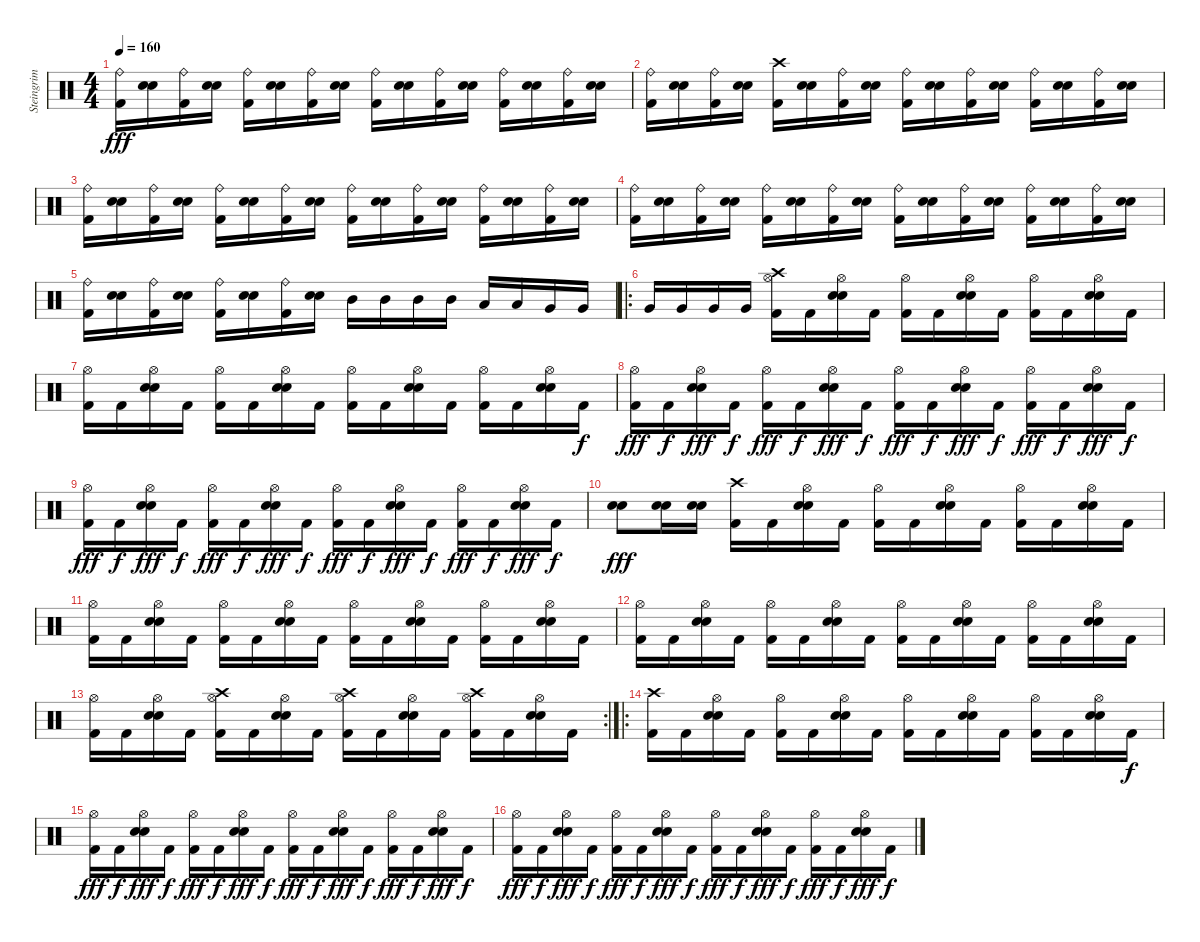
\track ("Steingrim" "Steingrim") {instrument percussion}
\staff {score}
\articulation defaults
\ts (4 4)
\tempo 160
\clef neutral
\ks c
("Kick (hit) 2" "Ride (bell)").16{dy fff} ("Snare (hit) 2" "Electric Snare (hit)").16 ("Kick (hit) 2" "Ride (bell)").16 ("Snare (hit) 2" "Electric Snare (hit)").16 ("Kick (hit) 2" "Ride (bell)").16 ("Snare (hit) 2" "Electric Snare (hit)").16 ("Kick (hit) 2" "Ride (bell)").16 ("Snare (hit) 2" "Electric Snare (hit)").16 ("Kick (hit) 2" "Ride (bell)").16 ("Snare (hit) 2" "Electric Snare (hit)").16 ("Kick (hit) 2" "Ride (bell)").16 ("Snare (hit) 2" "Electric Snare (hit)").16 ("Kick (hit) 2" "Ride (bell)").16 ("Snare (hit) 2" "Electric Snare (hit)").16 ("Kick (hit) 2" "Ride (bell)").16 ("Snare (hit) 2" "Electric Snare (hit)").16 |
("Kick (hit) 2" "Ride (bell)").16 ("Snare (hit) 2" "Electric Snare (hit)").16 ("Kick (hit) 2" "Ride (bell)").16 ("Snare (hit) 2" "Electric Snare (hit)").16 ("Kick (hit) 2" "Crash high (hit)").16 ("Snare (hit) 2" "Electric Snare (hit)").16 ("Kick (hit) 2" "Ride (bell)").16 ("Snare (hit) 2" "Electric Snare (hit)").16 ("Kick (hit) 2" "Ride (bell)").16 ("Snare (hit) 2" "Electric Snare (hit)").16 ("Kick (hit) 2" "Ride (bell)").16 ("Snare (hit) 2" "Electric Snare (hit)").16 ("Kick (hit) 2" "Ride (bell)").16 ("Snare (hit) 2" "Electric Snare (hit)").16 ("Kick (hit) 2" "Ride (bell)").16 ("Snare (hit) 2" "Electric Snare (hit)").16 |
("Kick (hit) 2" "Ride (bell)").16 ("Snare (hit) 2" "Electric Snare (hit)").16 ("Kick (hit) 2" "Ride (bell)").16 ("Snare (hit) 2" "Electric Snare (hit)").16 ("Kick (hit) 2" "Ride (bell)").16 ("Snare (hit) 2" "Electric Snare (hit)").16 ("Kick (hit) 2" "Ride (bell)").16 ("Snare (hit) 2" "Electric Snare (hit)").16 ("Kick (hit) 2" "Ride (bell)").16 ("Snare (hit) 2" "Electric Snare (hit)").16 ("Kick (hit) 2" "Ride (bell)").16 ("Snare (hit) 2" "Electric Snare (hit)").16 ("Kick (hit) 2" "Ride (bell)").16 ("Snare (hit) 2" "Electric Snare (hit)").16 ("Kick (hit) 2" "Ride (bell)").16 ("Snare (hit) 2" "Electric Snare (hit)").16 |
("Kick (hit) 2" "Ride (bell)").16 ("Snare (hit) 2" "Electric Snare (hit)").16 ("Kick (hit) 2" "Ride (bell)").16 ("Snare (hit) 2" "Electric Snare (hit)").16 ("Kick (hit) 2" "Ride (bell)").16 ("Snare (hit) 2" "Electric Snare (hit)").16 ("Kick (hit) 2" "Ride (bell)").16 ("Snare (hit) 2" "Electric Snare (hit)").16 ("Kick (hit) 2" "Ride (bell)").16 ("Snare (hit) 2" "Electric Snare (hit)").16 ("Kick (hit) 2" "Ride (bell)").16 ("Snare (hit) 2" "Electric Snare (hit)").16 ("Kick (hit) 2" "Ride (bell)").16 ("Snare (hit) 2" "Electric Snare (hit)").16 ("Kick (hit) 2" "Ride (bell)").16 ("Snare (hit) 2" "Electric Snare (hit)").16 |
("Kick (hit) 2" "Ride (bell)").16 ("Snare (hit) 2" "Electric Snare (hit)").16 ("Kick (hit) 2" "Ride (bell)").16 ("Snare (hit) 2" "Electric Snare (hit)").16 ("Kick (hit) 2" "Ride (bell)").16 ("Snare (hit) 2" "Electric Snare (hit)").16 ("Kick (hit) 2" "Ride (bell)").16 ("Snare (hit) 2" "Electric Snare (hit)").16 "Mid Tom (hit)".16 "Mid Tom (hit)".16 "Mid Tom (hit)".16 "Mid Tom (hit)".16 "Low Tom (hit)".16 "Low Tom (hit)".16 "Very Low Tom (hit)".16 "Very Low Tom (hit)".16 |
\ro "Very Low Tom (hit)".16 "Very Low Tom (hit)".16 "Very Low Tom (hit)".16 "Very Low Tom (hit)".16
("Crash high (hit)" "Kick (hit) 2" "Hi-Hat (open)").16 "Kick (hit) 2".16 ("Snare (hit) 2" "Electric Snare (hit)" "Hi-Hat (open)").16 "Kick (hit) 2".16 ("Kick (hit) 2" "Hi-Hat (open)").16 "Kick (hit) 2".16 ("Snare (hit) 2" "Electric Snare (hit)" "Hi-Hat (open)").16 "Kick (hit) 2".16 ("Kick (hit) 2" "Hi-Hat (open)").16 "Kick (hit) 2".16 ("Snare (hit) 2" "Electric Snare (hit)" "Hi-Hat (open)").16 "Kick (hit) 2".16 |
("Kick (hit) 2" "Hi-Hat (open)").16 "Kick (hit) 2".16 ("Snare (hit) 2" "Electric Snare (hit)" "Hi-Hat (open)").16 "Kick (hit) 2".16 ("Kick (hit) 2" "Hi-Hat (open)").16 "Kick (hit) 2".16 ("Snare (hit) 2" "Electric Snare (hit)" "Hi-Hat (open)").16 "Kick (hit) 2".16 ("Kick (hit) 2" "Hi-Hat (open)").16 "Kick (hit) 2".16 ("Snare (hit) 2" "Electric Snare (hit)" "Hi-Hat (open)").16 "Kick (hit) 2".16 ("Kick (hit) 2" "Hi-Hat (open)").16 "Kick (hit) 2".16 ("Snare (hit) 2" "Electric Snare (hit)" "Hi-Hat (open)").16 "Kick (hit) 2".16{dy f} |
("Kick (hit) 2" "Hi-Hat (open)").16{dy fff} "Kick (hit) 2".16{dy f} ("Snare (hit) 2" "Electric Snare (hit)" "Hi-Hat (open)").16{dy fff} "Kick (hit) 2".16{dy f} ("Kick (hit) 2" "Hi-Hat (open)").16{dy fff} "Kick (hit) 2".16{dy f} ("Snare (hit) 2" "Electric Snare (hit)" "Hi-Hat (open)").16{dy fff} "Kick (hit) 2".16{dy f} ("Kick (hit) 2" "Hi-Hat (open)").16{dy fff} "Kick (hit) 2".16{dy f} ("Snare (hit) 2" "Electric Snare (hit)" "Hi-Hat (open)").16{dy fff} "Kick (hit) 2".16{dy f} ("Kick (hit) 2" "Hi-Hat (open)").16{dy fff} "Kick (hit) 2".16{dy f} ("Snare (hit) 2" "Electric Snare (hit)" "Hi-Hat (open)").16{dy fff} "Kick (hit) 2".16{dy f} |
("Kick (hit) 2" "Hi-Hat (open)").16{dy fff} "Kick (hit) 2".16{dy f} ("Snare (hit) 2" "Electric Snare (hit)" "Hi-Hat (open)").16{dy fff} "Kick (hit) 2".16{dy f} ("Kick (hit) 2" "Hi-Hat (open)").16{dy fff} "Kick (hit) 2".16{dy f} ("Snare (hit) 2" "Electric Snare (hit)" "Hi-Hat (open)").16{dy fff} "Kick (hit) 2".16{dy f} ("Kick (hit) 2" "Hi-Hat (open)").16{dy fff} "Kick (hit) 2".16{dy f} ("Snare (hit) 2" "Electric Snare (hit)" "Hi-Hat (open)").16{dy fff} "Kick (hit) 2".16{dy f} ("Kick (hit) 2" "Hi-Hat (open)").16{dy fff} "Kick (hit) 2".16{dy f} ("Snare (hit) 2" "Electric Snare (hit)" "Hi-Hat (open)").16{dy fff} "Kick (hit) 2".16{dy f} |
("Snare (hit) 2" "Electric Snare (hit)").8{dy fff} ("Snare (hit) 2" "Electric Snare (hit)").16 ("Snare (hit) 2" "Electric Snare (hit)").16 ("Crash high (hit)" "Kick (hit) 2").16 "Kick (hit) 2".16 ("Hi-Hat (open)" "Electric Snare (hit)" "Snare (hit) 2").16 "Kick (hit) 2".16 ("Hi-Hat (open)" "Kick (hit) 2").16 "Kick (hit) 2".16 ("Hi-Hat (open)" "Electric Snare (hit)" "Snare (hit) 2").16 "Kick (hit) 2".16 ("Hi-Hat (open)" "Kick (hit) 2").16 "Kick (hit) 2".16 ("Hi-Hat (open)" "Electric Snare (hit)" "Snare (hit) 2").16 "Kick (hit) 2".16 |
("Kick (hit) 2" "Hi-Hat (open)").16 "Kick (hit) 2".16 ("Snare (hit) 2" "Electric Snare (hit)" "Hi-Hat (open)").16 "Kick (hit) 2".16 ("Kick (hit) 2" "Hi-Hat (open)").16 "Kick (hit) 2".16 ("Snare (hit) 2" "Electric Snare (hit)" "Hi-Hat (open)").16 "Kick (hit) 2".16 ("Kick (hit) 2" "Hi-Hat (open)").16 "Kick (hit) 2".16 ("Snare (hit) 2" "Electric Snare (hit)" "Hi-Hat (open)").16 "Kick (hit) 2".16 ("Kick (hit) 2" "Hi-Hat (open)").16 "Kick (hit) 2".16 ("Snare (hit) 2" "Electric Snare (hit)" "Hi-Hat (open)").16 "Kick (hit) 2".16 |
("Kick (hit) 2" "Hi-Hat (open)").16 "Kick (hit) 2".16 ("Snare (hit) 2" "Electric Snare (hit)" "Hi-Hat (open)").16 "Kick (hit) 2".16 ("Kick (hit) 2" "Hi-Hat (open)").16 "Kick (hit) 2".16 ("Snare (hit) 2" "Electric Snare (hit)" "Hi-Hat (open)").16 "Kick (hit) 2".16 ("Kick (hit) 2" "Hi-Hat (open)").16 "Kick (hit) 2".16 ("Snare (hit) 2" "Electric Snare (hit)" "Hi-Hat (open)").16 "Kick (hit) 2".16 ("Kick (hit) 2" "Hi-Hat (open)").16 "Kick (hit) 2".16 ("Snare (hit) 2" "Electric Snare (hit)" "Hi-Hat (open)").16 "Kick (hit) 2".16 |
\rc 2
("Kick (hit) 2" "Hi-Hat (open)").16 "Kick (hit) 2".16 ("Snare (hit) 2" "Electric Snare (hit)" "Hi-Hat (open)").16 "Kick (hit) 2".16 ("Crash high (hit)" "Kick (hit) 2" "Hi-Hat (open)").16 "Kick (hit) 2".16 ("Snare (hit) 2" "Electric Snare (hit)" "Hi-Hat (open)").16 "Kick (hit) 2".16 ("Crash high (hit)" "Kick (hit) 2" "Hi-Hat (open)").16 "Kick (hit) 2".16 ("Snare (hit) 2" "Electric Snare (hit)" "Hi-Hat (open)").16 "Kick (hit) 2".16 ("Crash high (hit)" "Kick (hit) 2" "Hi-Hat (open)").16 "Kick (hit) 2".16 ("Snare (hit) 2" "Electric Snare (hit)" "Hi-Hat (open)").16 "Kick (hit) 2".16 |
\ro
("Kick (hit) 2" "Crash high (hit)").16 "Kick (hit) 2".16 ("Snare (hit) 2" "Electric Snare (hit)" "Hi-Hat (open)").16 "Kick (hit) 2".16 ("Kick (hit) 2" "Hi-Hat (open)").16 "Kick (hit) 2".16 ("Snare (hit) 2" "Electric Snare (hit)" "Hi-Hat (open)").16 "Kick (hit) 2".16 ("Kick (hit) 2" "Hi-Hat (open)").16 "Kick (hit) 2".16 ("Snare (hit) 2" "Electric Snare (hit)" "Hi-Hat (open)").16 "Kick (hit) 2".16 ("Kick (hit) 2" "Hi-Hat (open)").16 "Kick (hit) 2".16 ("Snare (hit) 2" "Electric Snare (hit)" "Hi-Hat (open)").16 "Kick (hit) 2".16{dy f} |
("Kick (hit) 2" "Hi-Hat (open)").16{dy fff} "Kick (hit) 2".16{dy f} ("Snare (hit) 2" "Electric Snare (hit)" "Hi-Hat (open)").16{dy fff} "Kick (hit) 2".16{dy f} ("Kick (hit) 2" "Hi-Hat (open)").16{dy fff} "Kick (hit) 2".16{dy f} ("Snare (hit) 2" "Electric Snare (hit)" "Hi-Hat (open)").16{dy fff} "Kick (hit) 2".16{dy f} ("Kick (hit) 2" "Hi-Hat (open)").16{dy fff} "Kick (hit) 2".16{dy f} ("Snare (hit) 2" "Electric Snare (hit)" "Hi-Hat (open)").16{dy fff} "Kick (hit) 2".16{dy f} ("Kick (hit) 2" "Hi-Hat (open)").16{dy fff} "Kick (hit) 2".16{dy f} ("Snare (hit) 2" "Electric Snare (hit)" "Hi-Hat (open)").16{dy fff} "Kick (hit) 2".16{dy f} |
("Kick (hit) 2" "Hi-Hat (open)").16{dy fff} "Kick (hit) 2".16{dy f} ("Snare (hit) 2" "Electric Snare (hit)" "Hi-Hat (open)").16{dy fff} "Kick (hit) 2".16{dy f} ("Kick (hit) 2" "Hi-Hat (open)").16{dy fff} "Kick (hit) 2".16{dy f} ("Snare (hit) 2" "Electric Snare (hit)" "Hi-Hat (open)").16{dy fff} "Kick (hit) 2".16{dy f} ("Kick (hit) 2" "Hi-Hat (open)").16{dy fff} "Kick (hit) 2".16{dy f} ("Snare (hit) 2" "Electric Snare (hit)" "Hi-Hat (open)").16{dy fff} "Kick (hit) 2".16{dy f} ("Kick (hit) 2" "Hi-Hat (open)").16{dy fff} "Kick (hit) 2".16{dy f} ("Snare (hit) 2" "Electric Snare (hit)" "Hi-Hat (open)").16{dy fff} "Kick (hit) 2".16{dy f}
